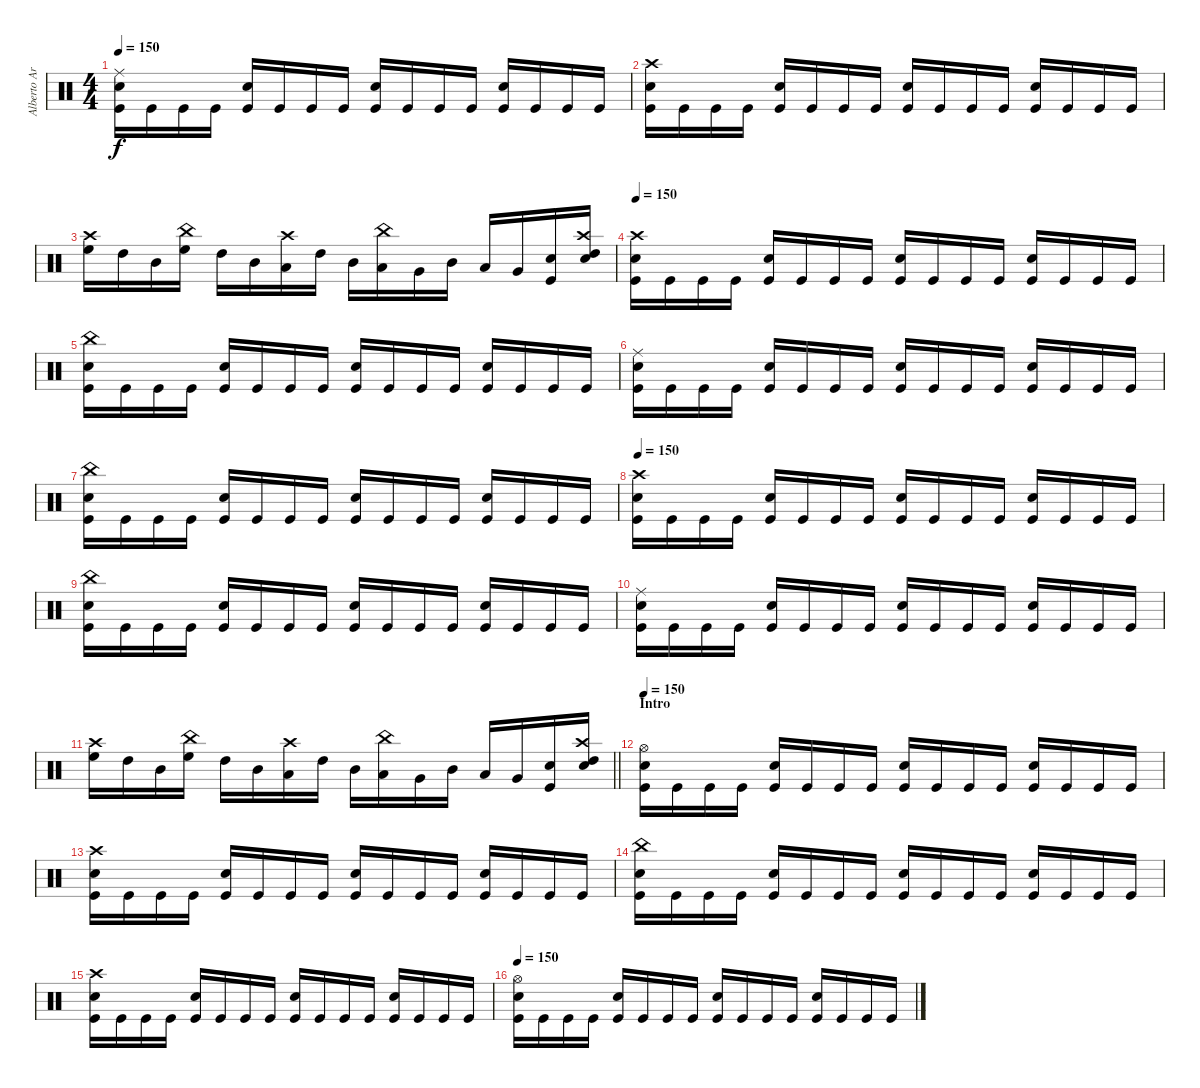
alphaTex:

\track ("Alberto Ardines" "Alberto Ar") {instrument percussion}
\staff {score}
\articulation defaults
\ts (4 4)
\tempo 150
\clef neutral
\ks c
("Ride (middle)" "Kick (hit)" "Snare (hit) 2").16{dy f} "Kick (hit)".16 "Kick (hit)".16 "Kick (hit)".16 ("Kick (hit)" "Snare (hit) 2").16 "Kick (hit)".16 "Kick (hit)".16 "Kick (hit)".16 ("Kick (hit)" "Snare (hit) 2").16 "Kick (hit)".16 "Kick (hit)".16 "Kick (hit)".16 ("Kick (hit)" "Snare (hit) 2").16 "Kick (hit)".16 "Kick (hit)".16 "Kick (hit)".16 |
("Crash high (hit)" "Kick (hit)" "Snare (hit) 2").16 "Kick (hit)".16 "Kick (hit)".16 "Kick (hit)".16 ("Kick (hit)" "Snare (hit) 2").16 "Kick (hit)".16 "Kick (hit)".16 "Kick (hit)".16 ("Kick (hit)" "Snare (hit) 2").16 "Kick (hit)".16 "Kick (hit)".16 "Kick (hit)".16 ("Kick (hit)" "Snare (hit) 2").16 "Kick (hit)".16 "Kick (hit)".16 "Kick (hit)".16 |
("Crash high (hit)" "High Floor Tom (hit)").16 "High Tom (hit)".16 "Mid Tom (hit)".16 ("China (hit)" "High Floor Tom (hit)").16 "High Tom (hit)".16 "Mid Tom (hit)".16 ("Crash high (hit)" "Low Tom (hit)").16 "High Tom (hit)".16 "Mid Tom (hit)".16 ("China (hit)" "Low Tom (hit)").16 "Very Low Tom (hit)".16 "Mid Tom (hit)".16 "Low Tom (hit)".16 "Very Low Tom (hit)".16 ("Snare (hit) 2" "Kick (hit)").16 ("High Tom (hit)" "Snare (hit) 2" "Crash high (hit)").16 |
\tempo 150
("Crash high (hit)" "Kick (hit)" "Snare (hit) 2").16 "Kick (hit)".16 "Kick (hit)".16 "Kick (hit)".16 ("Kick (hit)" "Snare (hit) 2").16 "Kick (hit)".16 "Kick (hit)".16 "Kick (hit)".16 ("Kick (hit)" "Snare (hit) 2").16 "Kick (hit)".16 "Kick (hit)".16 "Kick (hit)".16 ("Kick (hit)" "Snare (hit) 2").16 "Kick (hit)".16 "Kick (hit)".16 "Kick (hit)".16 |
("China (hit)" "Kick (hit)" "Snare (hit) 2").16 "Kick (hit)".16 "Kick (hit)".16 "Kick (hit)".16 ("Kick (hit)" "Snare (hit) 2").16 "Kick (hit)".16 "Kick (hit)".16 "Kick (hit)".16 ("Kick (hit)" "Snare (hit) 2").16 "Kick (hit)".16 "Kick (hit)".16 "Kick (hit)".16 ("Kick (hit)" "Snare (hit) 2").16 "Kick (hit)".16 "Kick (hit)".16 "Kick (hit)".16 |
("Ride (middle)" "Kick (hit)" "Snare (hit) 2").16 "Kick (hit)".16 "Kick (hit)".16 "Kick (hit)".16 ("Kick (hit)" "Snare (hit) 2").16 "Kick (hit)".16 "Kick (hit)".16 "Kick (hit)".16 ("Kick (hit)" "Snare (hit) 2").16 "Kick (hit)".16 "Kick (hit)".16 "Kick (hit)".16 ("Kick (hit)" "Snare (hit) 2").16 "Kick (hit)".16 "Kick (hit)".16 "Kick (hit)".16 |
("China (hit)" "Kick (hit)" "Snare (hit) 2").16 "Kick (hit)".16 "Kick (hit)".16 "Kick (hit)".16 ("Kick (hit)" "Snare (hit) 2").16 "Kick (hit)".16 "Kick (hit)".16 "Kick (hit)".16 ("Kick (hit)" "Snare (hit) 2").16 "Kick (hit)".16 "Kick (hit)".16 "Kick (hit)".16 ("Kick (hit)" "Snare (hit) 2").16 "Kick (hit)".16 "Kick (hit)".16 "Kick (hit)".16 |
\tempo 150
("Crash high (hit)" "Kick (hit)" "Snare (hit) 2").16 "Kick (hit)".16 "Kick (hit)".16 "Kick (hit)".16 ("Kick (hit)" "Snare (hit) 2").16 "Kick (hit)".16 "Kick (hit)".16 "Kick (hit)".16 ("Kick (hit)" "Snare (hit) 2").16 "Kick (hit)".16 "Kick (hit)".16 "Kick (hit)".16 ("Kick (hit)" "Snare (hit) 2").16 "Kick (hit)".16 "Kick (hit)".16 "Kick (hit)".16 |
("China (hit)" "Kick (hit)" "Snare (hit) 2").16 "Kick (hit)".16 "Kick (hit)".16 "Kick (hit)".16 ("Kick (hit)" "Snare (hit) 2").16 "Kick (hit)".16 "Kick (hit)".16 "Kick (hit)".16 ("Kick (hit)" "Snare (hit) 2").16 "Kick (hit)".16 "Kick (hit)".16 "Kick (hit)".16 ("Kick (hit)" "Snare (hit) 2").16 "Kick (hit)".16 "Kick (hit)".16 "Kick (hit)".16 |
("Ride (middle)" "Kick (hit)" "Snare (hit) 2").16 "Kick (hit)".16 "Kick (hit)".16 "Kick (hit)".16 ("Kick (hit)" "Snare (hit) 2").16 "Kick (hit)".16 "Kick (hit)".16 "Kick (hit)".16 ("Kick (hit)" "Snare (hit) 2").16 "Kick (hit)".16 "Kick (hit)".16 "Kick (hit)".16 ("Kick (hit)" "Snare (hit) 2").16 "Kick (hit)".16 "Kick (hit)".16 "Kick (hit)".16 |
\barLineRight lightlight
("Crash high (hit)" "High Floor Tom (hit)").16 "High Tom (hit)".16 "Mid Tom (hit)".16 ("China (hit)" "High Floor Tom (hit)").16 "High Tom (hit)".16 "Mid Tom (hit)".16 ("Crash high (hit)" "Low Tom (hit)").16 "High Tom (hit)".16 "Mid Tom (hit)".16 ("China (hit)" "Low Tom (hit)").16 "Very Low Tom (hit)".16 "Mid Tom (hit)".16 "Low Tom (hit)".16 "Very Low Tom (hit)".16 ("Snare (hit) 2" "Kick (hit)").16 ("High Tom (hit)" "Snare (hit) 2" "Crash high (hit)").16 |
\section ("" "Intro")
\tempo 150
("Hi-Hat (open)" "Kick (hit)" "Snare (hit) 2").16 "Kick (hit)".16 "Kick (hit)".16 "Kick (hit)".16 ("Kick (hit)" "Snare (hit) 2").16 "Kick (hit)".16 "Kick (hit)".16 "Kick (hit)".16 ("Kick (hit)" "Snare (hit) 2").16 "Kick (hit)".16 "Kick (hit)".16 "Kick (hit)".16 ("Kick (hit)" "Snare (hit) 2").16 "Kick (hit)".16 "Kick (hit)".16 "Kick (hit)".16 |
("Crash high (hit)" "Kick (hit)" "Snare (hit) 2").16 "Kick (hit)".16 "Kick (hit)".16 "Kick (hit)".16 ("Kick (hit)" "Snare (hit) 2").16 "Kick (hit)".16 "Kick (hit)".16 "Kick (hit)".16 ("Kick (hit)" "Snare (hit) 2").16 "Kick (hit)".16 "Kick (hit)".16 "Kick (hit)".16 ("Kick (hit)" "Snare (hit) 2").16 "Kick (hit)".16 "Kick (hit)".16 "Kick (hit)".16 |
("China (hit)" "Kick (hit)" "Snare (hit) 2").16 "Kick (hit)".16 "Kick (hit)".16 "Kick (hit)".16 ("Kick (hit)" "Snare (hit) 2").16 "Kick (hit)".16 "Kick (hit)".16 "Kick (hit)".16 ("Kick (hit)" "Snare (hit) 2").16 "Kick (hit)".16 "Kick (hit)".16 "Kick (hit)".16 ("Kick (hit)" "Snare (hit) 2").16 "Kick (hit)".16 "Kick (hit)".16 "Kick (hit)".16 |
("Crash high (hit)" "Kick (hit)" "Snare (hit) 2").16 "Kick (hit)".16 "Kick (hit)".16 "Kick (hit)".16 ("Kick (hit)" "Snare (hit) 2").16 "Kick (hit)".16 "Kick (hit)".16 "Kick (hit)".16 ("Kick (hit)" "Snare (hit) 2").16 "Kick (hit)".16 "Kick (hit)".16 "Kick (hit)".16 ("Kick (hit)" "Snare (hit) 2").16 "Kick (hit)".16 "Kick (hit)".16 "Kick (hit)".16 |
\tempo 150
("Hi-Hat (open)" "Kick (hit)" "Snare (hit) 2").16 "Kick (hit)".16 "Kick (hit)".16 "Kick (hit)".16 ("Kick (hit)" "Snare (hit) 2").16 "Kick (hit)".16 "Kick (hit)".16 "Kick (hit)".16 ("Kick (hit)" "Snare (hit) 2").16 "Kick (hit)".16 "Kick (hit)".16 "Kick (hit)".16 ("Kick (hit)" "Snare (hit) 2").16 "Kick (hit)".16 "Kick (hit)".16 "Kick (hit)".16
